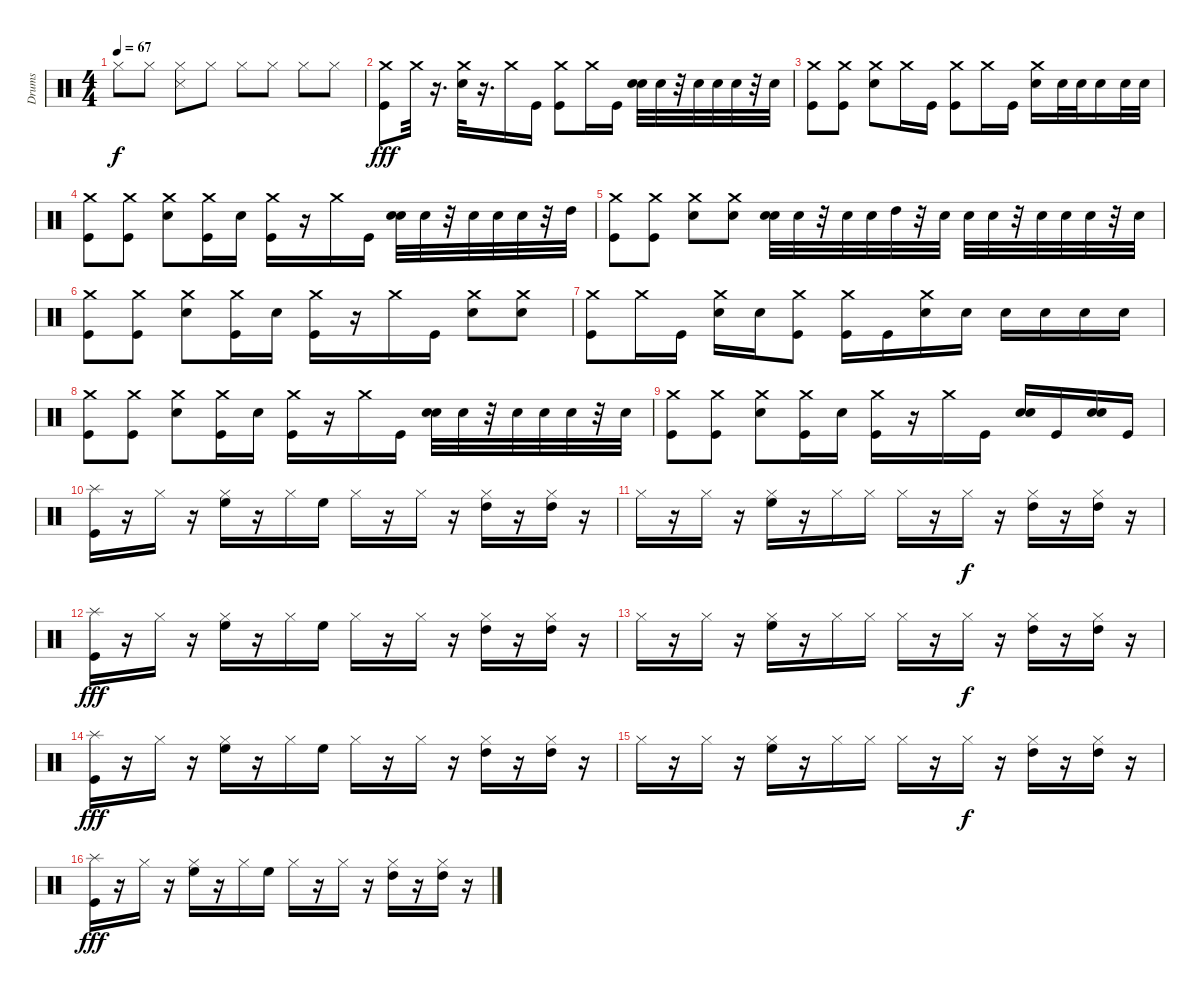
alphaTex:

\track ("Drums" "Drums") {instrument percussion}
\staff {score}
\articulation defaults
\ts (4 4)
\tempo 67
\clef neutral
\ks c "Hi-Hat (closed)".8{dy f} "Hi-Hat (closed)".8
("Snare (side stick) 3" "Hi-Hat (closed)").8 "Hi-Hat (closed)".8 "Hi-Hat (closed)".8 "Hi-Hat (closed)".8 "Hi-Hat (closed)".8 "Hi-Hat (closed)".8 |
("Kick (hit)" "Crash medium (hit)").8{dy fff} "Crash medium (hit)".32 r.16{d} ("Snare (hit) 2" "Crash medium (hit)").32 r.16{d} "Crash medium (hit)".16 "Kick (hit)".16 ("Kick (hit)" "Crash medium (hit)").8 "Crash medium (hit)".16 "Kick (hit)".16 ("Snare (hit) 2" "Snare (hit) 2").32 "Snare (hit) 2".32 r.32 "Snare (hit) 2".32 "Snare (hit) 2".32 "Snare (hit) 2".32 r.32 "Snare (hit) 2".32 |
("Crash medium (hit)" "Kick (hit)").8 ("Crash medium (hit)" "Kick (hit)").8 ("Snare (hit) 2" "Crash medium (hit)").8 "Crash medium (hit)".16 "Kick (hit)".16 ("Kick (hit)" "Crash medium (hit)").8 "Crash medium (hit)".16 "Kick (hit)".16 ("Crash medium (hit)" "Snare (hit) 2").16 "Snare (hit) 2".32 "Snare (hit) 2".32 "Snare (hit) 2".16 "Snare (hit) 2".32 "Snare (hit) 2".32 |
("Crash medium (hit)" "Kick (hit)").8 ("Crash medium (hit)" "Kick (hit)").8 ("Crash medium (hit)" "Snare (hit) 2").8 ("Crash medium (hit)" "Kick (hit)").16 "Snare (hit) 2".16 ("Crash medium (hit)" "Kick (hit)").16 r.16 "Crash medium (hit)".16 "Kick (hit)".16 ("Snare (hit) 2" "Snare (hit) 2").32 "Snare (hit) 2".32 r.32 "Snare (hit) 2".32 "Snare (hit) 2".32 "Snare (hit) 2".32 r.32 "High Tom (hit)".32 |
("Crash medium (hit)" "Kick (hit)").8 ("Crash medium (hit)" "Kick (hit)").8 ("Snare (hit) 2" "Crash medium (hit)").8 ("Crash medium (hit)" "Snare (hit) 2").8 ("Snare (hit) 2" "Snare (hit) 2").32 "Snare (hit) 2".32 r.32 "Snare (hit) 2".32 "Snare (hit) 2".32 "High Tom (hit)".32 r.32 "Snare (hit) 2".32 "Snare (hit) 2".32 "Snare (hit) 2".32 r.32 "Snare (hit) 2".32 "Snare (hit) 2".32 "Snare (hit) 2".32 r.32 "Snare (hit) 2".32 |
("Crash medium (hit)" "Kick (hit)").8 ("Crash medium (hit)" "Kick (hit)").8 ("Snare (hit) 2" "Crash medium (hit)").8 ("Crash medium (hit)" "Kick (hit)").16 "Snare (hit) 2".16 ("Kick (hit)" "Crash medium (hit)").16 r.16 "Crash medium (hit)".16 "Kick (hit)".16 ("Crash medium (hit)" "Snare (hit) 2").8 ("Crash medium (hit)" "Snare (hit) 2").8 |
("Kick (hit)" "Crash medium (hit)").8 "Crash medium (hit)".16 "Kick (hit)".16 ("Crash medium (hit)" "Snare (hit) 2").16 "Snare (hit) 2".16 ("Kick (hit)" "Crash medium (hit)").8 ("Kick (hit)" "Crash medium (hit)").16 "Kick (hit)".16 ("Snare (hit) 2" "Crash medium (hit)").16 "Snare (hit) 2".16 "Snare (hit) 2".16 "Snare (hit) 2".16 "Snare (hit) 2".16 "Snare (hit) 2".16 |
("Crash medium (hit)" "Kick (hit)").8 ("Crash medium (hit)" "Kick (hit)").8 ("Crash medium (hit)" "Snare (hit) 2").8 ("Crash medium (hit)" "Kick (hit)").16 "Snare (hit) 2".16 ("Crash medium (hit)" "Kick (hit)").16 r.16 "Crash medium (hit)".16 "Kick (hit)".16 ("Snare (hit) 2" "Snare (hit) 2").32 "Snare (hit) 2".32 r.32 "Snare (hit) 2".32 "Snare (hit) 2".32 "Snare (hit) 2".32 r.32 "Snare (hit) 2".32 |
("Crash medium (hit)" "Kick (hit)").8 ("Crash medium (hit)" "Kick (hit)").8 ("Snare (hit) 2" "Crash medium (hit)").8 ("Crash medium (hit)" "Kick (hit)").16 "Snare (hit) 2".16 ("Crash medium (hit)" "Kick (hit)").16 r.16 "Crash medium (hit)".16 "Kick (hit)".16 ("Snare (hit) 2" "Snare (hit) 2").16 "Kick (hit)".16 ("Snare (hit) 2" "Snare (hit) 2").16 "Kick (hit)".16 |
("Splash (hit)" "Kick (hit)").16 r.16 "Hi-Hat (closed)".16 r.16 ("Hi-Hat (closed)" "High Floor Tom (hit)").16 r.16 "Hi-Hat (closed)".16 "High Floor Tom (hit)".16 "Hi-Hat (closed)".16 r.16 "Hi-Hat (closed)".16 r.16 ("High Tom (hit)" "Hi-Hat (closed)").16 r.16 ("High Tom (hit)" "Hi-Hat (closed)").16 r.16 |
"Hi-Hat (closed)".16 r.16 "Hi-Hat (closed)".16 r.16 ("Hi-Hat (closed)" "High Floor Tom (hit)").16 r.16 "Hi-Hat (closed)".16 "Hi-Hat (closed)".16 "Hi-Hat (closed)".16 r.16 "Hi-Hat (closed)".16{dy f} r.16 ("High Tom (hit)" "Hi-Hat (closed)").16 r.16 ("High Tom (hit)" "Hi-Hat (closed)").16 r.16 |
("Splash (hit)" "Kick (hit)").16{dy fff} r.16 "Hi-Hat (closed)".16 r.16 ("Hi-Hat (closed)" "High Floor Tom (hit)").16 r.16 "Hi-Hat (closed)".16 "High Floor Tom (hit)".16 "Hi-Hat (closed)".16 r.16 "Hi-Hat (closed)".16 r.16 ("High Tom (hit)" "Hi-Hat (closed)").16 r.16 ("High Tom (hit)" "Hi-Hat (closed)").16 r.16 |
"Hi-Hat (closed)".16 r.16 "Hi-Hat (closed)".16 r.16 ("Hi-Hat (closed)" "High Floor Tom (hit)").16 r.16 "Hi-Hat (closed)".16 "Hi-Hat (closed)".16 "Hi-Hat (closed)".16 r.16 "Hi-Hat (closed)".16{dy f} r.16 ("High Tom (hit)" "Hi-Hat (closed)").16 r.16 ("High Tom (hit)" "Hi-Hat (closed)").16 r.16 |
("Splash (hit)" "Kick (hit)").16{dy fff} r.16 "Hi-Hat (closed)".16 r.16 ("Hi-Hat (closed)" "High Floor Tom (hit)").16 r.16 "Hi-Hat (closed)".16 "High Floor Tom (hit)".16 "Hi-Hat (closed)".16 r.16 "Hi-Hat (closed)".16 r.16 ("High Tom (hit)" "Hi-Hat (closed)").16 r.16 ("High Tom (hit)" "Hi-Hat (closed)").16 r.16 |
"Hi-Hat (closed)".16 r.16 "Hi-Hat (closed)".16 r.16 ("Hi-Hat (closed)" "High Floor Tom (hit)").16 r.16 "Hi-Hat (closed)".16 "Hi-Hat (closed)".16 "Hi-Hat (closed)".16 r.16 "Hi-Hat (closed)".16{dy f} r.16 ("High Tom (hit)" "Hi-Hat (closed)").16 r.16 ("High Tom (hit)" "Hi-Hat (closed)").16 r.16 |
("Splash (hit)" "Kick (hit)").16{dy fff} r.16 "Hi-Hat (closed)".16 r.16 ("Hi-Hat (closed)" "High Floor Tom (hit)").16 r.16 "Hi-Hat (closed)".16 "High Floor Tom (hit)".16 "Hi-Hat (closed)".16 r.16 "Hi-Hat (closed)".16 r.16 ("High Tom (hit)" "Hi-Hat (closed)").16 r.16 ("High Tom (hit)" "Hi-Hat (closed)").16 r.16
